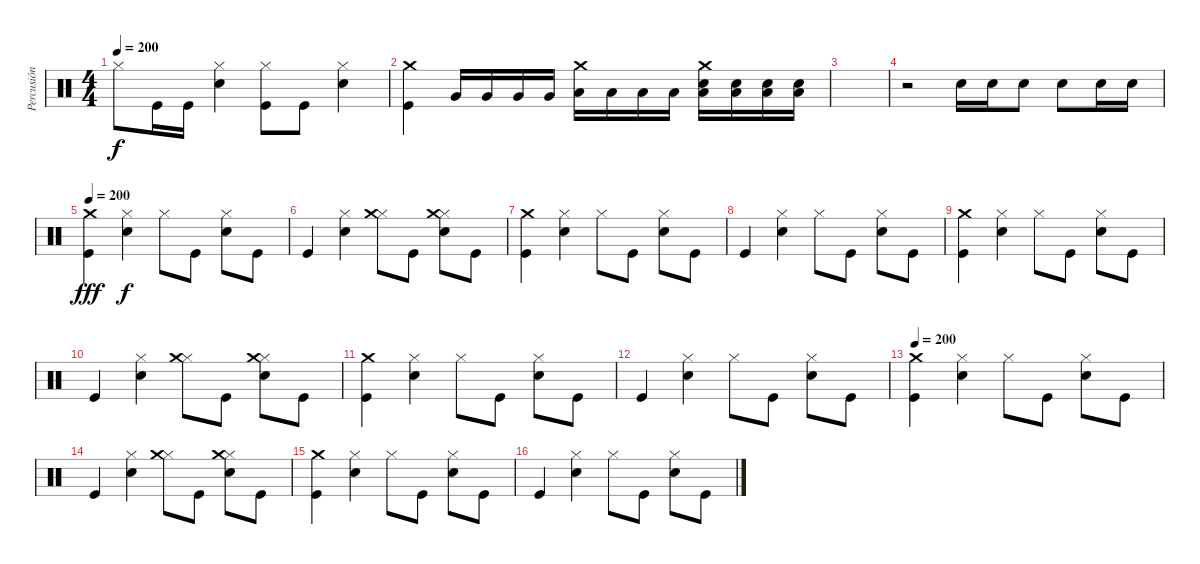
\track ("Percusión" "Percusión") {instrument percussion}
\staff {score}
\articulation defaults
\ts (4 4)
\tempo 200
\clef neutral
\ks c "Hi-Hat (closed)".8{dy f} "Kick (hit)".16 "Kick (hit)".16
("Snare (hit) 2" "Hi-Hat (closed)").4 ("Kick (hit)" "Hi-Hat (closed)").8 "Kick (hit)".8 ("Snare (hit) 2" "Hi-Hat (closed)").4 |
("Kick (hit)" "Crash medium (hit)").4 "Very Low Tom (hit)".16 "Very Low Tom (hit)".16 "Very Low Tom (hit)".16 "Very Low Tom (hit)".16 ("Low Tom (hit)" "Crash medium (hit)").16 "Low Tom (hit)".16 "Low Tom (hit)".16 "Low Tom (hit)".16 ("Electric Snare (hit)" "Low Tom (hit)" "Crash medium (hit)").16 ("Electric Snare (hit)" "Low Tom (hit)").16 ("Electric Snare (hit)" "Low Tom (hit)").16 ("Electric Snare (hit)" "Low Tom (hit)").16 |
|
r.2 "Snare (hit) 2".16 "Snare (hit) 2".16 "Snare (hit) 2".8 "Snare (hit) 2".8 "Snare (hit) 2".16 "Snare (hit) 2".16 |
\tempo 200
("Kick (hit)" "Crash medium (hit)").4{dy fff} ("Snare (hit) 2" "Hi-Hat (closed)").4{dy f} "Hi-Hat (closed)".8 "Kick (hit)".8 ("Snare (hit) 2" "Hi-Hat (closed)").8 "Kick (hit)".8 |
"Kick (hit)".4 ("Snare (hit) 2" "Hi-Hat (closed)").4 ("Hi-Hat (closed)" "Crash medium (hit)").8 "Kick (hit)".8 ("Snare (hit) 2" "Hi-Hat (closed)" "Crash medium (hit)").8 "Kick (hit)".8 |
("Kick (hit)" "Crash medium (hit)").4 ("Snare (hit) 2" "Hi-Hat (closed)").4 "Hi-Hat (closed)".8 "Kick (hit)".8 ("Snare (hit) 2" "Hi-Hat (closed)").8 "Kick (hit)".8 |
"Kick (hit)".4 ("Snare (hit) 2" "Hi-Hat (closed)").4 "Hi-Hat (closed)".8 "Kick (hit)".8 ("Snare (hit) 2" "Hi-Hat (closed)").8 "Kick (hit)".8 |
("Kick (hit)" "Crash medium (hit)").4 ("Snare (hit) 2" "Hi-Hat (closed)").4 "Hi-Hat (closed)".8 "Kick (hit)".8 ("Snare (hit) 2" "Hi-Hat (closed)").8 "Kick (hit)".8 |
"Kick (hit)".4 ("Snare (hit) 2" "Hi-Hat (closed)").4 ("Hi-Hat (closed)" "Crash medium (hit)").8 "Kick (hit)".8 ("Snare (hit) 2" "Hi-Hat (closed)" "Crash medium (hit)").8 "Kick (hit)".8 |
("Kick (hit)" "Crash medium (hit)").4 ("Snare (hit) 2" "Hi-Hat (closed)").4 "Hi-Hat (closed)".8 "Kick (hit)".8 ("Snare (hit) 2" "Hi-Hat (closed)").8 "Kick (hit)".8 |
"Kick (hit)".4 ("Snare (hit) 2" "Hi-Hat (closed)").4 "Hi-Hat (closed)".8 "Kick (hit)".8 ("Snare (hit) 2" "Hi-Hat (closed)").8 "Kick (hit)".8 |
\tempo 200
("Kick (hit)" "Crash medium (hit)").4 ("Snare (hit) 2" "Hi-Hat (closed)").4 "Hi-Hat (closed)".8 "Kick (hit)".8 ("Snare (hit) 2" "Hi-Hat (closed)").8 "Kick (hit)".8 |
"Kick (hit)".4 ("Snare (hit) 2" "Hi-Hat (closed)").4 ("Hi-Hat (closed)" "Crash medium (hit)").8 "Kick (hit)".8 ("Snare (hit) 2" "Hi-Hat (closed)" "Crash medium (hit)").8 "Kick (hit)".8 |
("Kick (hit)" "Crash medium (hit)").4 ("Snare (hit) 2" "Hi-Hat (closed)").4 "Hi-Hat (closed)".8 "Kick (hit)".8 ("Snare (hit) 2" "Hi-Hat (closed)").8 "Kick (hit)".8 |
"Kick (hit)".4 ("Snare (hit) 2" "Hi-Hat (closed)").4 "Hi-Hat (closed)".8 "Kick (hit)".8 ("Snare (hit) 2" "Hi-Hat (closed)").8 "Kick (hit)".8
